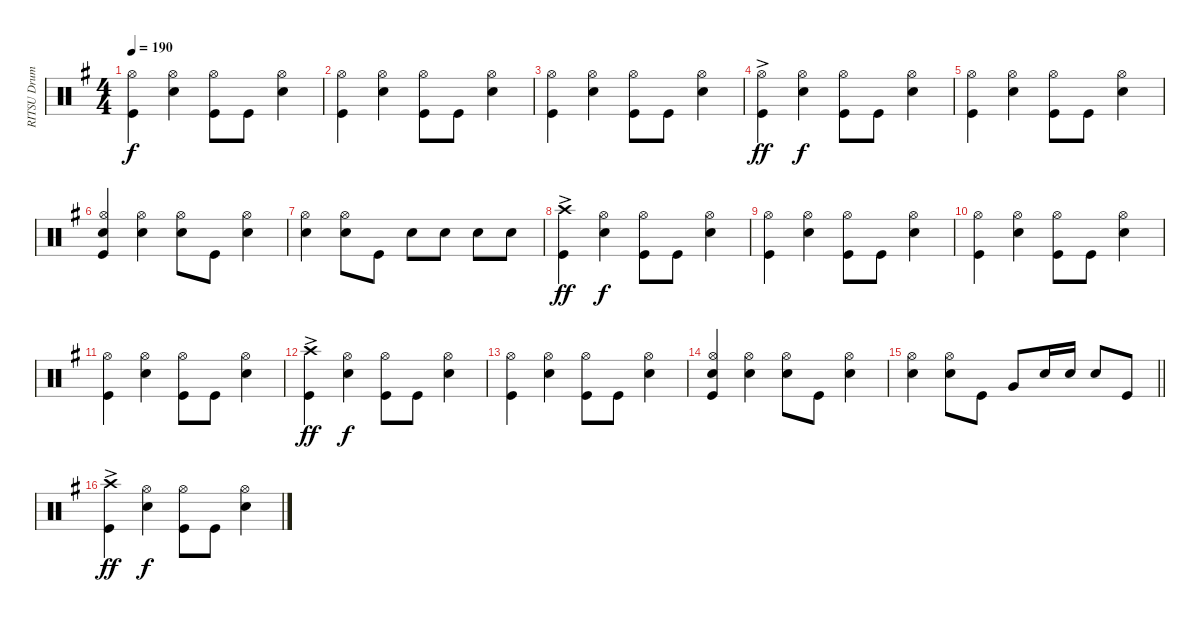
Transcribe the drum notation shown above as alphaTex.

\track ("RITSU Drums" "RITSU Drum") {instrument percussion}
\staff {score}
\articulation defaults
\ts (4 4)
\tempo 190
\clef neutral
\ks g
("Kick (hit)" "Hi-Hat (open)").4{dy f} ("Hi-Hat (open)" "Snare (hit) 2").4 ("Kick (hit)" "Hi-Hat (open)").8 "Kick (hit)".8 ("Snare (hit) 2" "Hi-Hat (open)").4 |
("Kick (hit)" "Hi-Hat (open)").4 ("Hi-Hat (open)" "Snare (hit) 2").4 ("Kick (hit)" "Hi-Hat (open)").8 "Kick (hit)".8 ("Snare (hit) 2" "Hi-Hat (open)").4 |
("Kick (hit)" "Hi-Hat (open)").4 ("Hi-Hat (open)" "Snare (hit) 2").4 ("Kick (hit)" "Hi-Hat (open)").8 "Kick (hit)".8 ("Snare (hit) 2" "Hi-Hat (open)").4 |
("Kick (hit)" "Hi-Hat (open)"{ac}).4{dy ff} ("Hi-Hat (open)" "Snare (hit) 2").4{dy f} ("Kick (hit)" "Hi-Hat (open)").8 "Kick (hit)".8 ("Snare (hit) 2" "Hi-Hat (open)").4 |
("Kick (hit)" "Hi-Hat (open)").4 ("Hi-Hat (open)" "Snare (hit) 2").4 ("Kick (hit)" "Hi-Hat (open)").8 "Kick (hit)".8 ("Snare (hit) 2" "Hi-Hat (open)").4 |
("Kick (hit)" "Hi-Hat (open)" "Snare (hit) 2").4 ("Hi-Hat (open)" "Snare (hit) 2").4 ("Hi-Hat (open)" "Snare (hit) 2").8 "Kick (hit)".8 ("Snare (hit) 2" "Hi-Hat (open)").4 |
("Hi-Hat (open)" "Snare (hit) 2").4 ("Hi-Hat (open)" "Snare (hit) 2").8 "Kick (hit)".8 "Snare (hit) 2".8 "Snare (hit) 2".8 "Snare (hit) 2".8 "Snare (hit) 2".8 |
("Kick (hit)" "Crash high (hit)"{ac}).4{dy ff} ("Hi-Hat (open)" "Snare (hit) 2").4{dy f} ("Kick (hit)" "Hi-Hat (open)").8 "Kick (hit)".8 ("Snare (hit) 2" "Hi-Hat (open)").4 |
("Kick (hit)" "Hi-Hat (open)").4 ("Hi-Hat (open)" "Snare (hit) 2").4 ("Kick (hit)" "Hi-Hat (open)").8 "Kick (hit)".8 ("Snare (hit) 2" "Hi-Hat (open)").4 |
("Kick (hit)" "Hi-Hat (open)").4 ("Hi-Hat (open)" "Snare (hit) 2").4 ("Kick (hit)" "Hi-Hat (open)").8 "Kick (hit)".8 ("Snare (hit) 2" "Hi-Hat (open)").4 |
("Kick (hit)" "Hi-Hat (open)").4 ("Hi-Hat (open)" "Snare (hit) 2").4 ("Kick (hit)" "Hi-Hat (open)").8 "Kick (hit)".8 ("Snare (hit) 2" "Hi-Hat (open)").4 |
("Kick (hit)" "Crash high (hit)"{ac}).4{dy ff} ("Hi-Hat (open)" "Snare (hit) 2").4{dy f} ("Kick (hit)" "Hi-Hat (open)").8 "Kick (hit)".8 ("Snare (hit) 2" "Hi-Hat (open)").4 |
("Kick (hit)" "Hi-Hat (open)").4 ("Hi-Hat (open)" "Snare (hit) 2").4 ("Kick (hit)" "Hi-Hat (open)").8 "Kick (hit)".8 ("Snare (hit) 2" "Hi-Hat (open)").4 |
("Kick (hit)" "Hi-Hat (open)" "Snare (hit) 2").4 ("Hi-Hat (open)" "Snare (hit) 2").4 ("Hi-Hat (open)" "Snare (hit) 2").8 "Kick (hit)".8 ("Snare (hit) 2" "Hi-Hat (open)").4 |
\barLineRight lightlight
("Hi-Hat (open)" "Snare (hit) 2").4 ("Hi-Hat (open)" "Snare (hit) 2").8 "Kick (hit)".8 "Very Low Tom (hit)".8 "Snare (hit) 2".16 "Snare (hit) 2".16 "Snare (hit) 2".8 "Kick (hit)".8 |
("Kick (hit)" "Crash high (hit)"{ac}).4{dy ff} ("Hi-Hat (open)" "Snare (hit) 2").4{dy f} ("Kick (hit)" "Hi-Hat (open)").8 "Kick (hit)".8 ("Snare (hit) 2" "Hi-Hat (open)").4
